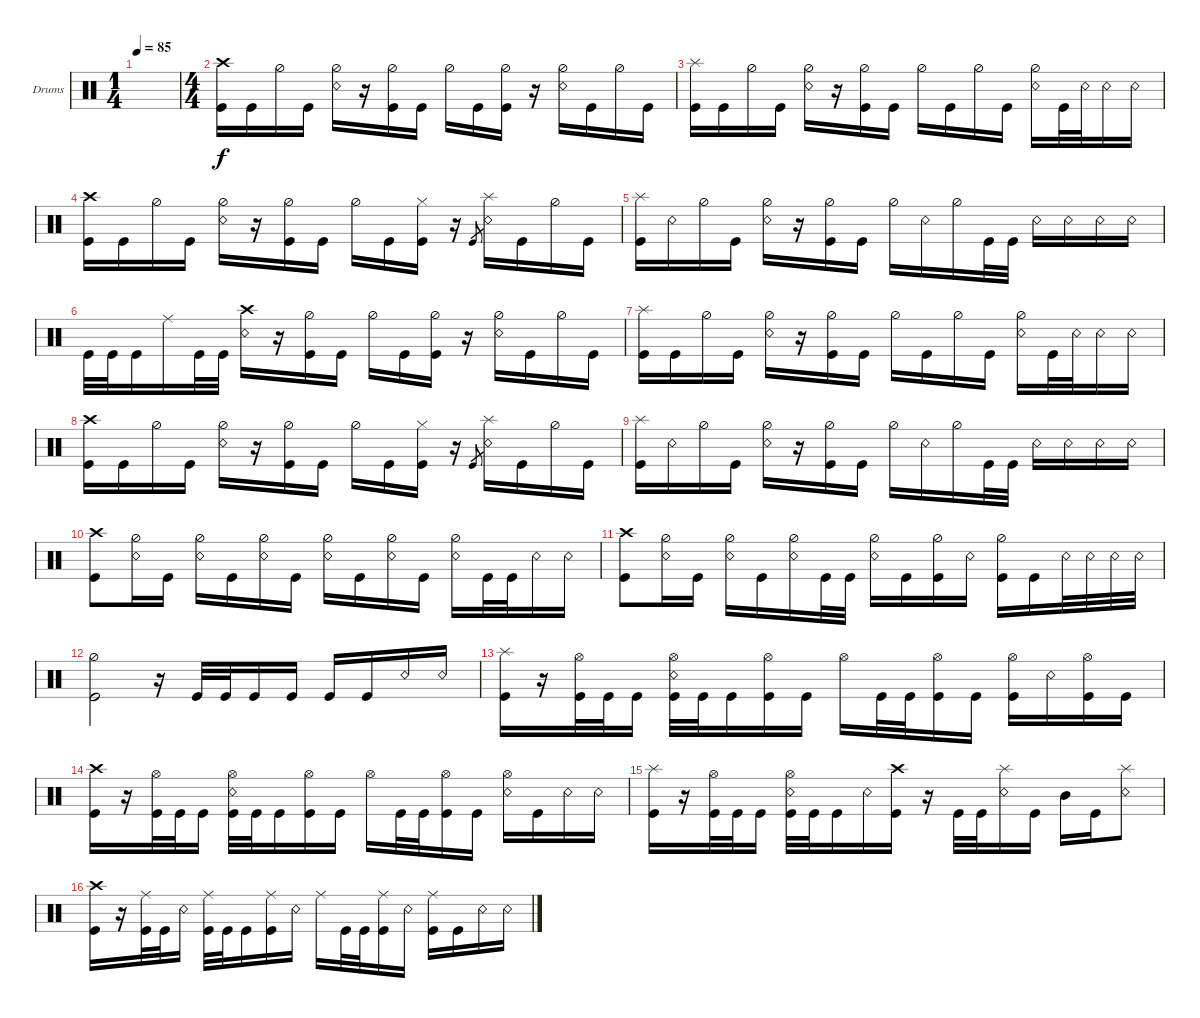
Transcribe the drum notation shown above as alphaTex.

\defaultSystemsLayout 4
\bracketExtendMode groupsimilarinstruments
\firstSystemTrackNameOrientation horizontal
\otherSystemsTrackNameOrientation horizontal
\track ("Drumkit" "Drums") {instrument percussion}
\staff {score}
\articulation defaults
\ts (1 4)
\tempo 85
\clef neutral
\ks c
|
\ts (4 4)
("Kick (hit)" "Crash high (hit)").16 "Kick (hit)".16 "Hi-Hat (half)".16 "Kick (hit)".16 ("Snare (rim shot)" "Hi-Hat (half)").16 r.16 ("Kick (hit)" "Hi-Hat (half)").16 "Kick (hit)".16 "Hi-Hat (half)".16 "Kick (hit)".16 ("Kick (hit)" "Hi-Hat (half)").16 r.16 ("Snare (rim shot)" "Hi-Hat (half)").16 "Kick (hit)".16 "Hi-Hat (half)".16 "Kick (hit)".16 |
("Kick (hit)" "Splash (hit)").16 "Kick (hit)".16 "Hi-Hat (half)".16 "Kick (hit)".16 ("Snare (rim shot)" "Hi-Hat (half)").16 r.16 ("Kick (hit)" "Hi-Hat (half)").16 "Kick (hit)".16 "Hi-Hat (half)".16 "Kick (hit)".16 "Hi-Hat (half)".16 "Kick (hit)".16 ("Snare (rim shot)" "Hi-Hat (half)").16 "Kick (hit)".32 "Snare (rim shot)".32 "Snare (rim shot)".16 "Snare (rim shot)".16 |
("Kick (hit)" "Crash high (hit)").16 "Kick (hit)".16 "Hi-Hat (half)".16 "Kick (hit)".16 ("Snare (rim shot)" "Hi-Hat (half)").16 r.16 ("Kick (hit)" "Hi-Hat (half)").16 "Kick (hit)".16 "Hi-Hat (half)".16 "Kick (hit)".16 ("Hi-Hat (closed)" "Kick (hit)").16 r.16 "Kick (hit)".8{gr} ("Snare (rim shot)" "Splash (hit)").16 "Kick (hit)".16 "Hi-Hat (half)".16 "Kick (hit)".16 |
("Kick (hit)" "Splash (hit)").16 "Snare (rim shot)".16 "Hi-Hat (half)".16 "Kick (hit)".16 ("Snare (rim shot)" "Hi-Hat (half)").16 r.16 ("Kick (hit)" "Hi-Hat (half)").16 "Kick (hit)".16 "Hi-Hat (half)".16 "Snare (rim shot)".16 "Hi-Hat (half)".16 "Kick (hit)".32 "Kick (hit)".32 "Snare (rim shot)".16 "Snare (rim shot)".16 "Snare (rim shot)".16 "Snare (rim shot)".16 |
"Kick (hit)".32 "Kick (hit)".32 "Kick (hit)".16 "Ride (middle)".16 "Kick (hit)".32 "Kick (hit)".32 ("Snare (rim shot)" "Crash high (hit)").16 r.16 ("Kick (hit)" "Hi-Hat (half)").16 "Kick (hit)".16 "Hi-Hat (half)".16 "Kick (hit)".16 ("Kick (hit)" "Hi-Hat (half)").16 r.16 ("Snare (rim shot)" "Hi-Hat (half)").16 "Kick (hit)".16 "Hi-Hat (half)".16 "Kick (hit)".16 |
("Kick (hit)" "Splash (hit)").16 "Kick (hit)".16 "Hi-Hat (half)".16 "Kick (hit)".16 ("Snare (rim shot)" "Hi-Hat (half)").16 r.16 ("Kick (hit)" "Hi-Hat (half)").16 "Kick (hit)".16 "Hi-Hat (half)".16 "Kick (hit)".16 "Hi-Hat (half)".16 "Kick (hit)".16 ("Snare (rim shot)" "Hi-Hat (half)").16 "Kick (hit)".32 "Snare (rim shot)".32 "Snare (rim shot)".16 "Snare (rim shot)".16 |
("Kick (hit)" "Crash high (hit)").16 "Kick (hit)".16 "Hi-Hat (half)".16 "Kick (hit)".16 ("Snare (rim shot)" "Hi-Hat (half)").16 r.16 ("Kick (hit)" "Hi-Hat (half)").16 "Kick (hit)".16 "Hi-Hat (half)".16 "Kick (hit)".16 ("Hi-Hat (closed)" "Kick (hit)").16 r.16 "Kick (hit)".8{gr} ("Snare (rim shot)" "Splash (hit)").16 "Kick (hit)".16 "Hi-Hat (half)".16 "Kick (hit)".16 |
("Kick (hit)" "Splash (hit)").16 "Snare (rim shot)".16 "Hi-Hat (half)".16 "Kick (hit)".16 ("Snare (rim shot)" "Hi-Hat (half)").16 r.16 ("Kick (hit)" "Hi-Hat (half)").16 "Kick (hit)".16 "Hi-Hat (half)".16 "Snare (rim shot)".16 "Hi-Hat (half)".16 "Kick (hit)".32 "Kick (hit)".32 "Snare (rim shot)".16 "Snare (rim shot)".16 "Snare (rim shot)".16 "Snare (rim shot)".16 |
("Kick (hit)" "Crash high (hit)").8 ("Snare (rim shot)" "Hi-Hat (half)").16 "Kick (hit)".16 ("Snare (rim shot)" "Hi-Hat (half)").16 "Kick (hit)".16 ("Snare (rim shot)" "Hi-Hat (half)").16 "Kick (hit)".16 ("Snare (rim shot)" "Hi-Hat (half)").16 "Kick (hit)".16 ("Snare (rim shot)" "Hi-Hat (half)").16 "Kick (hit)".16 ("Snare (rim shot)" "Hi-Hat (half)").16 "Kick (hit)".32 "Kick (hit)".32 "Snare (rim shot)".16 "Snare (rim shot)".16 |
("Kick (hit)" "Crash high (hit)").8 ("Snare (rim shot)" "Hi-Hat (half)").16 "Kick (hit)".16 ("Snare (rim shot)" "Hi-Hat (half)").16 "Kick (hit)".16 ("Snare (rim shot)" "Hi-Hat (half)").16 "Kick (hit)".32 "Kick (hit)".32 ("Snare (rim shot)" "Hi-Hat (half)").16 "Kick (hit)".16 ("Kick (hit)" "Hi-Hat (half)").16 "Snare (rim shot)".16 ("Kick (hit)" "Hi-Hat (half)").16 "Kick (hit)".16 "Snare (rim shot)".32 "Snare (rim shot)".32 "Snare (rim shot)".32 "Snare (rim shot)".32 |
("Kick (hit)" "Hi-Hat (half)").2 r.16 "Kick (hit)".32 "Kick (hit)".32 "Kick (hit)".16 "Kick (hit)".16 "Kick (hit)".16 "Kick (hit)".16 "Snare (rim shot)".16 "Snare (rim shot)".16 |
("Kick (hit)" "Splash (hit)").16 r.16 ("Kick (hit)" "Hi-Hat (open)").32 "Kick (hit)".32 "Kick (hit)".16 ("Kick (hit)" "Snare (rim shot)" "Hi-Hat (open)").32 "Kick (hit)".32 "Kick (hit)".16 ("Kick (hit)" "Hi-Hat (open)").16 "Kick (hit)".16 "Hi-Hat (open)".16 "Kick (hit)".32 "Kick (hit)".32 ("Kick (hit)" "Hi-Hat (open)").16 "Kick (hit)".16 ("Hi-Hat (open)" "Kick (hit)").16 "Snare (rim shot)".16 ("Kick (hit)" "Hi-Hat (open)").16 "Kick (hit)".16 |
("Kick (hit)" "Crash high (hit)").16 r.16 ("Kick (hit)" "Hi-Hat (open)").32 "Kick (hit)".32 "Kick (hit)".16 ("Kick (hit)" "Snare (rim shot)" "Hi-Hat (open)").32 "Kick (hit)".32 "Kick (hit)".16 ("Kick (hit)" "Hi-Hat (open)").16 "Kick (hit)".16 "Hi-Hat (open)".16 "Kick (hit)".32 "Kick (hit)".32 ("Kick (hit)" "Hi-Hat (open)").16 "Kick (hit)".16 ("Snare (rim shot)" "Hi-Hat (open)").16 "Kick (hit)".16 "Snare (rim shot)".16 "Snare (rim shot)".16 |
("Kick (hit)" "Splash (hit)").16 r.16 ("Kick (hit)" "Hi-Hat (open)").32 "Kick (hit)".32 "Kick (hit)".16 ("Kick (hit)" "Snare (rim shot)" "Hi-Hat (open)").32 "Kick (hit)".32 "Kick (hit)".16 "Snare (rim shot)".16 ("Kick (hit)" "Crash high (hit)").16 r.16 "Kick (hit)".32 "Kick (hit)".32 ("Snare (rim shot)" "Splash (hit)").16 "Kick (hit)".16 "Mid Tom (hit)".16 "Kick (hit)".16 ("Snare (rim shot)" "Splash (hit)").8 |
("Kick (hit)" "Crash high (hit)").16 r.16 ("Kick (hit)" "Ride (middle)").32 "Kick (hit)".32 "Snare (rim shot)".16 ("Kick (hit)" "Ride (middle)").32 "Kick (hit)".32 "Kick (hit)".16 ("Kick (hit)" "Ride (middle)").16 "Snare (rim shot)".16 "Ride (middle)".16 "Kick (hit)".32 "Kick (hit)".32 ("Kick (hit)" "Ride (middle)").16 "Snare (rim shot)".16 ("Kick (hit)" "Ride (middle)").16 "Kick (hit)".16 "Snare (rim shot)".16 "Snare (rim shot)".16
